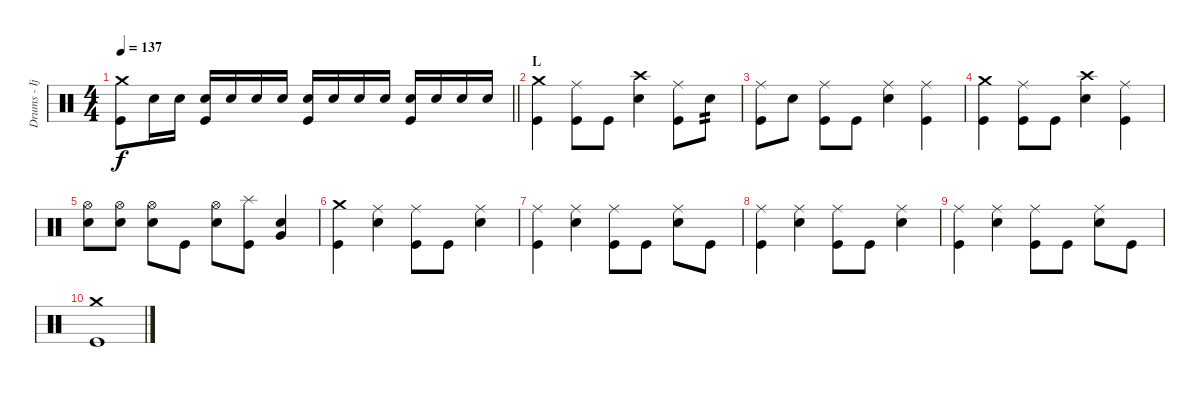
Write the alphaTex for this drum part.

\track ("Drums - Ijichi" "Drums - Ij") {instrument percussion}
\staff {score}
\articulation defaults
\ts (4 4)
\tempo 137
\clef neutral
\barLineRight lightlight
\ks c
("Crash medium (hit)" "Kick (hit)").8{dy f} "Electric Snare (hit)".16 "Electric Snare (hit)".16 ("Electric Snare (hit)" "Kick (hit)").16 "Electric Snare (hit)".16 "Electric Snare (hit)".16 "Electric Snare (hit)".16 ("Electric Snare (hit)" "Kick (hit)").16 "Electric Snare (hit)".16 "Electric Snare (hit)".16 "Electric Snare (hit)".16 ("Electric Snare (hit)" "Kick (hit)").16 "Electric Snare (hit)".16 "Electric Snare (hit)".16 "Electric Snare (hit)".16 |
\section ("" "L")
("Crash medium (hit)" "Kick (hit)").4 ("Ride (middle)" "Kick (hit)").8 "Kick (hit)".8 ("Crash high (hit)" "Electric Snare (hit)").4 ("Ride (middle)" "Kick (hit)").8 "Electric Snare (hit)".8{tp 2} |
("Ride (middle)" "Kick (hit)").8 "Electric Snare (hit)".8 ("Ride (middle)" "Kick (hit)").8 "Kick (hit)".8 ("Ride (middle)" "Electric Snare (hit)").4 ("Ride (middle)" "Kick (hit)").4 |
("Crash medium (hit)" "Kick (hit)").4 ("Ride (middle)" "Kick (hit)").8 "Kick (hit)".8 ("Crash high (hit)" "Electric Snare (hit)").4 ("Ride (middle)" "Kick (hit)").4 |
("Hi-Hat (open)" "Electric Snare (hit)").8 ("Hi-Hat (open)" "Electric Snare (hit)").8 ("Hi-Hat (open)" "Electric Snare (hit)").8 "Kick (hit)".8 ("Hi-Hat (open)" "Electric Snare (hit)").8 ("Splash (hit)" "Kick (hit)").8 ("Electric Snare (hit)" "Very Low Tom (hit)").4 |
("Crash medium (hit)" "Kick (hit)").4 ("Ride (middle)" "Electric Snare (hit)").4 ("Ride (middle)" "Kick (hit)").8 "Kick (hit)".8 ("Ride (middle)" "Electric Snare (hit)").4 |
("Ride (middle)" "Kick (hit)").4 ("Ride (middle)" "Electric Snare (hit)").4 ("Ride (middle)" "Kick (hit)").8 "Kick (hit)".8 ("Ride (middle)" "Electric Snare (hit)").8 "Kick (hit)".8 |
("Ride (middle)" "Kick (hit)").4 ("Ride (middle)" "Electric Snare (hit)").4 ("Ride (middle)" "Kick (hit)").8 "Kick (hit)".8 ("Ride (middle)" "Electric Snare (hit)").4 |
("Ride (middle)" "Kick (hit)").4 ("Ride (middle)" "Electric Snare (hit)").4 ("Ride (middle)" "Kick (hit)").8 "Kick (hit)".8 ("Ride (middle)" "Electric Snare (hit)").8 "Kick (hit)".8 |
("Crash medium (hit)" "Kick (hit)").1
